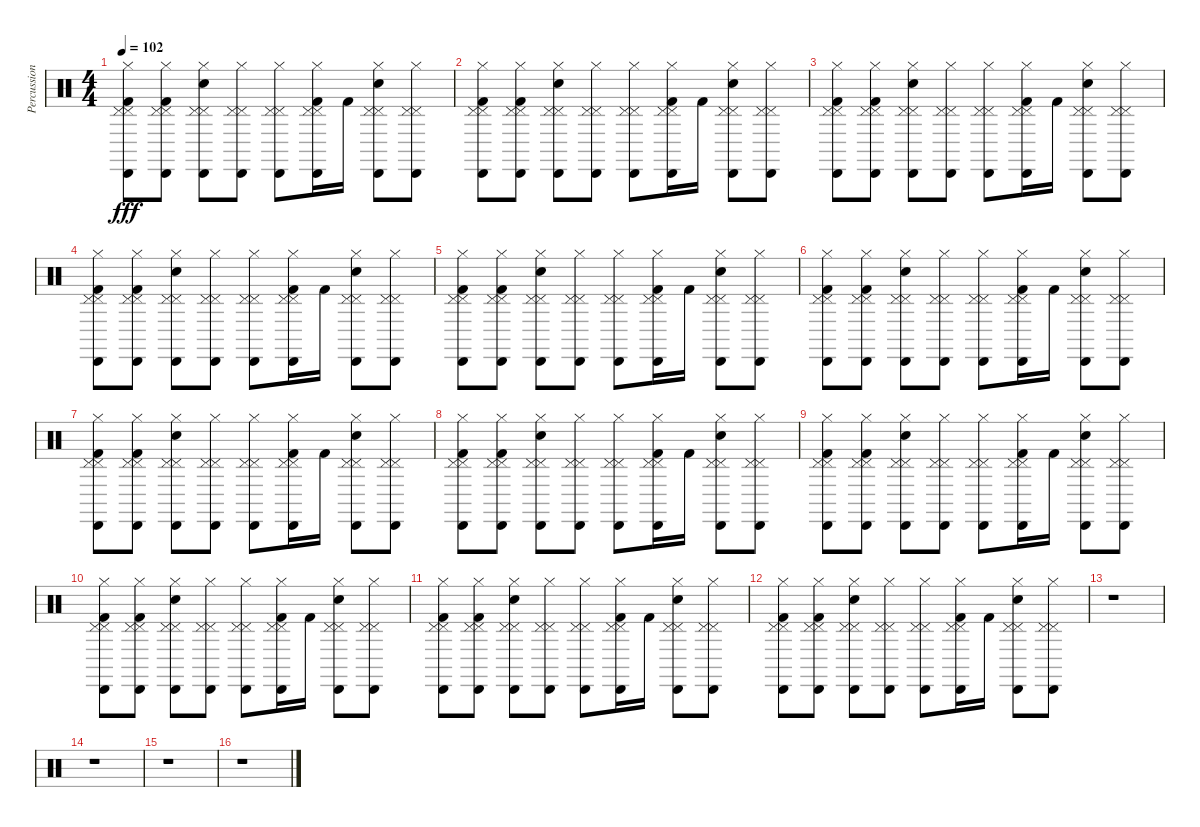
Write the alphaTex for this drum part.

\track ("Percussion" "Percussion") {instrument percussion}
\staff {score}
\articulation defaults
\ts (4 4)
\tempo 102
\clef neutral
\ks c
("Hi-Hat (closed)" "Kick (hit) 2" "Cabasa (hit)" "Pedal Hi-Hat (hit)" "Pedal Hi-Hat (hit)").8{dy fff} ("Hi-Hat (closed)" "Kick (hit) 2" "Cabasa (hit)" "Pedal Hi-Hat (hit)" "Pedal Hi-Hat (hit)").8 ("Hi-Hat (closed)" "Cabasa (hit)" "Electric Snare (hit)" "Pedal Hi-Hat (hit)" "Pedal Hi-Hat (hit)").8 ("Hi-Hat (closed)" "Cabasa (hit)" "Pedal Hi-Hat (hit)" "Pedal Hi-Hat (hit)").8 ("Hi-Hat (closed)" "Cabasa (hit)" "Pedal Hi-Hat (hit)" "Pedal Hi-Hat (hit)").8 ("Hi-Hat (closed)" "Kick (hit) 2" "Cabasa (hit)" "Pedal Hi-Hat (hit)" "Pedal Hi-Hat (hit)").16 "Kick (hit) 2".16 ("Hi-Hat (closed)" "Cabasa (hit)" "Electric Snare (hit)" "Pedal Hi-Hat (hit)" "Pedal Hi-Hat (hit)").8 ("Hi-Hat (closed)" "Cabasa (hit)" "Pedal Hi-Hat (hit)" "Pedal Hi-Hat (hit)").8 |
("Hi-Hat (closed)" "Kick (hit) 2" "Cabasa (hit)" "Pedal Hi-Hat (hit)" "Pedal Hi-Hat (hit)").8 ("Hi-Hat (closed)" "Kick (hit) 2" "Cabasa (hit)" "Pedal Hi-Hat (hit)" "Pedal Hi-Hat (hit)").8 ("Hi-Hat (closed)" "Cabasa (hit)" "Electric Snare (hit)" "Pedal Hi-Hat (hit)" "Pedal Hi-Hat (hit)").8 ("Hi-Hat (closed)" "Cabasa (hit)" "Pedal Hi-Hat (hit)" "Pedal Hi-Hat (hit)").8 ("Hi-Hat (closed)" "Cabasa (hit)" "Pedal Hi-Hat (hit)" "Pedal Hi-Hat (hit)").8 ("Hi-Hat (closed)" "Kick (hit) 2" "Cabasa (hit)" "Pedal Hi-Hat (hit)" "Pedal Hi-Hat (hit)").16 "Kick (hit) 2".16 ("Hi-Hat (closed)" "Cabasa (hit)" "Electric Snare (hit)" "Pedal Hi-Hat (hit)" "Pedal Hi-Hat (hit)").8 ("Hi-Hat (closed)" "Cabasa (hit)" "Pedal Hi-Hat (hit)" "Pedal Hi-Hat (hit)").8 |
("Hi-Hat (closed)" "Kick (hit) 2" "Cabasa (hit)" "Pedal Hi-Hat (hit)" "Pedal Hi-Hat (hit)").8 ("Hi-Hat (closed)" "Kick (hit) 2" "Cabasa (hit)" "Pedal Hi-Hat (hit)" "Pedal Hi-Hat (hit)").8 ("Hi-Hat (closed)" "Cabasa (hit)" "Electric Snare (hit)" "Pedal Hi-Hat (hit)" "Pedal Hi-Hat (hit)").8 ("Hi-Hat (closed)" "Cabasa (hit)" "Pedal Hi-Hat (hit)" "Pedal Hi-Hat (hit)").8 ("Hi-Hat (closed)" "Cabasa (hit)" "Pedal Hi-Hat (hit)" "Pedal Hi-Hat (hit)").8 ("Hi-Hat (closed)" "Kick (hit) 2" "Cabasa (hit)" "Pedal Hi-Hat (hit)" "Pedal Hi-Hat (hit)").16 "Kick (hit) 2".16 ("Hi-Hat (closed)" "Cabasa (hit)" "Electric Snare (hit)" "Pedal Hi-Hat (hit)" "Pedal Hi-Hat (hit)").8 ("Hi-Hat (closed)" "Cabasa (hit)" "Pedal Hi-Hat (hit)" "Pedal Hi-Hat (hit)").8 |
("Hi-Hat (closed)" "Kick (hit) 2" "Cabasa (hit)" "Pedal Hi-Hat (hit)" "Pedal Hi-Hat (hit)").8 ("Hi-Hat (closed)" "Kick (hit) 2" "Cabasa (hit)" "Pedal Hi-Hat (hit)" "Pedal Hi-Hat (hit)").8 ("Hi-Hat (closed)" "Cabasa (hit)" "Electric Snare (hit)" "Pedal Hi-Hat (hit)" "Pedal Hi-Hat (hit)").8 ("Hi-Hat (closed)" "Cabasa (hit)" "Pedal Hi-Hat (hit)" "Pedal Hi-Hat (hit)").8 ("Hi-Hat (closed)" "Cabasa (hit)" "Pedal Hi-Hat (hit)" "Pedal Hi-Hat (hit)").8 ("Hi-Hat (closed)" "Kick (hit) 2" "Cabasa (hit)" "Pedal Hi-Hat (hit)" "Pedal Hi-Hat (hit)").16 "Kick (hit) 2".16 ("Hi-Hat (closed)" "Cabasa (hit)" "Electric Snare (hit)" "Pedal Hi-Hat (hit)" "Pedal Hi-Hat (hit)").8 ("Hi-Hat (closed)" "Cabasa (hit)" "Pedal Hi-Hat (hit)" "Pedal Hi-Hat (hit)").8 |
("Hi-Hat (closed)" "Kick (hit) 2" "Cabasa (hit)" "Pedal Hi-Hat (hit)" "Pedal Hi-Hat (hit)").8 ("Hi-Hat (closed)" "Kick (hit) 2" "Cabasa (hit)" "Pedal Hi-Hat (hit)" "Pedal Hi-Hat (hit)").8 ("Hi-Hat (closed)" "Cabasa (hit)" "Electric Snare (hit)" "Pedal Hi-Hat (hit)" "Pedal Hi-Hat (hit)").8 ("Hi-Hat (closed)" "Cabasa (hit)" "Pedal Hi-Hat (hit)" "Pedal Hi-Hat (hit)").8 ("Hi-Hat (closed)" "Cabasa (hit)" "Pedal Hi-Hat (hit)" "Pedal Hi-Hat (hit)").8 ("Hi-Hat (closed)" "Kick (hit) 2" "Cabasa (hit)" "Pedal Hi-Hat (hit)" "Pedal Hi-Hat (hit)").16 "Kick (hit) 2".16 ("Hi-Hat (closed)" "Cabasa (hit)" "Electric Snare (hit)" "Pedal Hi-Hat (hit)" "Pedal Hi-Hat (hit)").8 ("Hi-Hat (closed)" "Cabasa (hit)" "Pedal Hi-Hat (hit)" "Pedal Hi-Hat (hit)").8 |
("Hi-Hat (closed)" "Kick (hit) 2" "Cabasa (hit)" "Pedal Hi-Hat (hit)" "Pedal Hi-Hat (hit)").8 ("Hi-Hat (closed)" "Kick (hit) 2" "Cabasa (hit)" "Pedal Hi-Hat (hit)" "Pedal Hi-Hat (hit)").8 ("Hi-Hat (closed)" "Cabasa (hit)" "Electric Snare (hit)" "Pedal Hi-Hat (hit)" "Pedal Hi-Hat (hit)").8 ("Hi-Hat (closed)" "Cabasa (hit)" "Pedal Hi-Hat (hit)" "Pedal Hi-Hat (hit)").8 ("Hi-Hat (closed)" "Cabasa (hit)" "Pedal Hi-Hat (hit)" "Pedal Hi-Hat (hit)").8 ("Hi-Hat (closed)" "Kick (hit) 2" "Cabasa (hit)" "Pedal Hi-Hat (hit)" "Pedal Hi-Hat (hit)").16 "Kick (hit) 2".16 ("Hi-Hat (closed)" "Cabasa (hit)" "Electric Snare (hit)" "Pedal Hi-Hat (hit)" "Pedal Hi-Hat (hit)").8 ("Hi-Hat (closed)" "Cabasa (hit)" "Pedal Hi-Hat (hit)" "Pedal Hi-Hat (hit)").8 |
("Hi-Hat (closed)" "Kick (hit) 2" "Cabasa (hit)" "Pedal Hi-Hat (hit)" "Pedal Hi-Hat (hit)").8 ("Hi-Hat (closed)" "Kick (hit) 2" "Cabasa (hit)" "Pedal Hi-Hat (hit)" "Pedal Hi-Hat (hit)").8 ("Hi-Hat (closed)" "Cabasa (hit)" "Electric Snare (hit)" "Pedal Hi-Hat (hit)" "Pedal Hi-Hat (hit)").8 ("Hi-Hat (closed)" "Cabasa (hit)" "Pedal Hi-Hat (hit)" "Pedal Hi-Hat (hit)").8 ("Hi-Hat (closed)" "Cabasa (hit)" "Pedal Hi-Hat (hit)" "Pedal Hi-Hat (hit)").8 ("Hi-Hat (closed)" "Kick (hit) 2" "Cabasa (hit)" "Pedal Hi-Hat (hit)" "Pedal Hi-Hat (hit)").16 "Kick (hit) 2".16 ("Hi-Hat (closed)" "Cabasa (hit)" "Electric Snare (hit)" "Pedal Hi-Hat (hit)" "Pedal Hi-Hat (hit)").8 ("Hi-Hat (closed)" "Cabasa (hit)" "Pedal Hi-Hat (hit)" "Pedal Hi-Hat (hit)").8 |
("Hi-Hat (closed)" "Kick (hit) 2" "Cabasa (hit)" "Pedal Hi-Hat (hit)" "Pedal Hi-Hat (hit)").8 ("Hi-Hat (closed)" "Kick (hit) 2" "Cabasa (hit)" "Pedal Hi-Hat (hit)" "Pedal Hi-Hat (hit)").8 ("Hi-Hat (closed)" "Cabasa (hit)" "Electric Snare (hit)" "Pedal Hi-Hat (hit)" "Pedal Hi-Hat (hit)").8 ("Hi-Hat (closed)" "Cabasa (hit)" "Pedal Hi-Hat (hit)" "Pedal Hi-Hat (hit)").8 ("Hi-Hat (closed)" "Cabasa (hit)" "Pedal Hi-Hat (hit)" "Pedal Hi-Hat (hit)").8 ("Hi-Hat (closed)" "Kick (hit) 2" "Cabasa (hit)" "Pedal Hi-Hat (hit)" "Pedal Hi-Hat (hit)").16 "Kick (hit) 2".16 ("Hi-Hat (closed)" "Cabasa (hit)" "Electric Snare (hit)" "Pedal Hi-Hat (hit)" "Pedal Hi-Hat (hit)").8 ("Hi-Hat (closed)" "Cabasa (hit)" "Pedal Hi-Hat (hit)" "Pedal Hi-Hat (hit)").8 |
("Hi-Hat (closed)" "Kick (hit) 2" "Cabasa (hit)" "Pedal Hi-Hat (hit)" "Pedal Hi-Hat (hit)").8 ("Hi-Hat (closed)" "Kick (hit) 2" "Cabasa (hit)" "Pedal Hi-Hat (hit)" "Pedal Hi-Hat (hit)").8 ("Hi-Hat (closed)" "Cabasa (hit)" "Electric Snare (hit)" "Pedal Hi-Hat (hit)" "Pedal Hi-Hat (hit)").8 ("Hi-Hat (closed)" "Cabasa (hit)" "Pedal Hi-Hat (hit)" "Pedal Hi-Hat (hit)").8 ("Hi-Hat (closed)" "Cabasa (hit)" "Pedal Hi-Hat (hit)" "Pedal Hi-Hat (hit)").8 ("Hi-Hat (closed)" "Kick (hit) 2" "Cabasa (hit)" "Pedal Hi-Hat (hit)" "Pedal Hi-Hat (hit)").16 "Kick (hit) 2".16 ("Hi-Hat (closed)" "Cabasa (hit)" "Electric Snare (hit)" "Pedal Hi-Hat (hit)" "Pedal Hi-Hat (hit)").8 ("Hi-Hat (closed)" "Cabasa (hit)" "Pedal Hi-Hat (hit)" "Pedal Hi-Hat (hit)").8 |
("Hi-Hat (closed)" "Kick (hit) 2" "Cabasa (hit)" "Pedal Hi-Hat (hit)" "Pedal Hi-Hat (hit)").8 ("Hi-Hat (closed)" "Kick (hit) 2" "Cabasa (hit)" "Pedal Hi-Hat (hit)" "Pedal Hi-Hat (hit)").8 ("Hi-Hat (closed)" "Cabasa (hit)" "Electric Snare (hit)" "Pedal Hi-Hat (hit)" "Pedal Hi-Hat (hit)").8 ("Hi-Hat (closed)" "Cabasa (hit)" "Pedal Hi-Hat (hit)" "Pedal Hi-Hat (hit)").8 ("Hi-Hat (closed)" "Cabasa (hit)" "Pedal Hi-Hat (hit)" "Pedal Hi-Hat (hit)").8 ("Hi-Hat (closed)" "Kick (hit) 2" "Cabasa (hit)" "Pedal Hi-Hat (hit)" "Pedal Hi-Hat (hit)").16 "Kick (hit) 2".16 ("Hi-Hat (closed)" "Cabasa (hit)" "Electric Snare (hit)" "Pedal Hi-Hat (hit)" "Pedal Hi-Hat (hit)").8 ("Hi-Hat (closed)" "Cabasa (hit)" "Pedal Hi-Hat (hit)" "Pedal Hi-Hat (hit)").8 |
("Hi-Hat (closed)" "Kick (hit) 2" "Cabasa (hit)" "Pedal Hi-Hat (hit)" "Pedal Hi-Hat (hit)").8 ("Hi-Hat (closed)" "Kick (hit) 2" "Cabasa (hit)" "Pedal Hi-Hat (hit)" "Pedal Hi-Hat (hit)").8 ("Hi-Hat (closed)" "Cabasa (hit)" "Electric Snare (hit)" "Pedal Hi-Hat (hit)" "Pedal Hi-Hat (hit)").8 ("Hi-Hat (closed)" "Cabasa (hit)" "Pedal Hi-Hat (hit)" "Pedal Hi-Hat (hit)").8 ("Hi-Hat (closed)" "Cabasa (hit)" "Pedal Hi-Hat (hit)" "Pedal Hi-Hat (hit)").8 ("Hi-Hat (closed)" "Kick (hit) 2" "Cabasa (hit)" "Pedal Hi-Hat (hit)" "Pedal Hi-Hat (hit)").16 "Kick (hit) 2".16 ("Hi-Hat (closed)" "Cabasa (hit)" "Electric Snare (hit)" "Pedal Hi-Hat (hit)" "Pedal Hi-Hat (hit)").8 ("Hi-Hat (closed)" "Cabasa (hit)" "Pedal Hi-Hat (hit)" "Pedal Hi-Hat (hit)").8 |
("Hi-Hat (closed)" "Kick (hit) 2" "Cabasa (hit)" "Pedal Hi-Hat (hit)" "Pedal Hi-Hat (hit)").8 ("Hi-Hat (closed)" "Kick (hit) 2" "Cabasa (hit)" "Pedal Hi-Hat (hit)" "Pedal Hi-Hat (hit)").8 ("Hi-Hat (closed)" "Cabasa (hit)" "Electric Snare (hit)" "Pedal Hi-Hat (hit)" "Pedal Hi-Hat (hit)").8 ("Hi-Hat (closed)" "Cabasa (hit)" "Pedal Hi-Hat (hit)" "Pedal Hi-Hat (hit)").8 ("Hi-Hat (closed)" "Cabasa (hit)" "Pedal Hi-Hat (hit)" "Pedal Hi-Hat (hit)").8 ("Hi-Hat (closed)" "Kick (hit) 2" "Cabasa (hit)" "Pedal Hi-Hat (hit)" "Pedal Hi-Hat (hit)").16 "Kick (hit) 2".16 ("Hi-Hat (closed)" "Cabasa (hit)" "Electric Snare (hit)" "Pedal Hi-Hat (hit)" "Pedal Hi-Hat (hit)").8 ("Hi-Hat (closed)" "Cabasa (hit)" "Pedal Hi-Hat (hit)" "Pedal Hi-Hat (hit)").8 |
r.1 |
r.1 |
r.1 |
r.1
